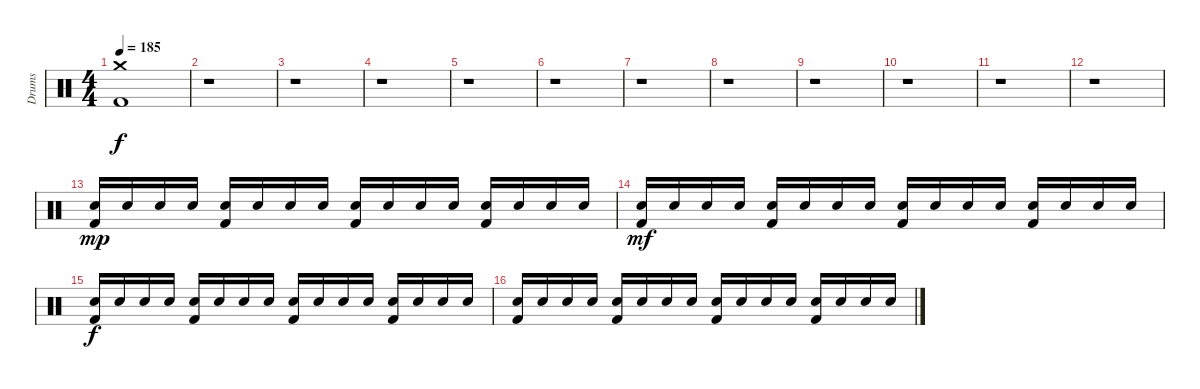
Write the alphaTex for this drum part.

\track ("Drums" "Drums") {instrument percussion}
\staff {score}
\articulation defaults
\ts (4 4)
\tempo 185
\clef neutral
\ks c
("Crash medium (hit)" "Kick (hit) 2").1{dy f} |
r.1 |
r.1 |
r.1 |
r.1 |
r.1 |
r.1 |
r.1 |
r.1 |
r.1 |
r.1 |
r.1 |
("Snare (hit) 2" "Kick (hit) 2").16{dy mp} "Snare (hit) 2".16 "Snare (hit) 2".16 "Snare (hit) 2".16 ("Snare (hit) 2" "Kick (hit) 2").16 "Snare (hit) 2".16 "Snare (hit) 2".16 "Snare (hit) 2".16 ("Snare (hit) 2" "Kick (hit) 2").16 "Snare (hit) 2".16 "Snare (hit) 2".16 "Snare (hit) 2".16 ("Snare (hit) 2" "Kick (hit) 2").16 "Snare (hit) 2".16 "Snare (hit) 2".16 "Snare (hit) 2".16 |
("Snare (hit) 2" "Kick (hit) 2").16{dy mf} "Snare (hit) 2".16 "Snare (hit) 2".16 "Snare (hit) 2".16 ("Snare (hit) 2" "Kick (hit) 2").16 "Snare (hit) 2".16 "Snare (hit) 2".16 "Snare (hit) 2".16 ("Snare (hit) 2" "Kick (hit) 2").16 "Snare (hit) 2".16 "Snare (hit) 2".16 "Snare (hit) 2".16 ("Snare (hit) 2" "Kick (hit) 2").16 "Snare (hit) 2".16 "Snare (hit) 2".16 "Snare (hit) 2".16 |
("Snare (hit) 2" "Kick (hit) 2").16{dy f} "Snare (hit) 2".16 "Snare (hit) 2".16 "Snare (hit) 2".16 ("Snare (hit) 2" "Kick (hit) 2").16 "Snare (hit) 2".16 "Snare (hit) 2".16 "Snare (hit) 2".16 ("Snare (hit) 2" "Kick (hit) 2").16 "Snare (hit) 2".16 "Snare (hit) 2".16 "Snare (hit) 2".16 ("Snare (hit) 2" "Kick (hit) 2").16 "Snare (hit) 2".16 "Snare (hit) 2".16 "Snare (hit) 2".16 |
("Snare (hit) 2" "Kick (hit) 2").16 "Snare (hit) 2".16 "Snare (hit) 2".16 "Snare (hit) 2".16 ("Snare (hit) 2" "Kick (hit) 2").16 "Snare (hit) 2".16 "Snare (hit) 2".16 "Snare (hit) 2".16 ("Snare (hit) 2" "Kick (hit) 2").16 "Snare (hit) 2".16 "Snare (hit) 2".16 "Snare (hit) 2".16 ("Snare (hit) 2" "Kick (hit) 2").16 "Snare (hit) 2".16 "Snare (hit) 2".16 "Snare (hit) 2".16
